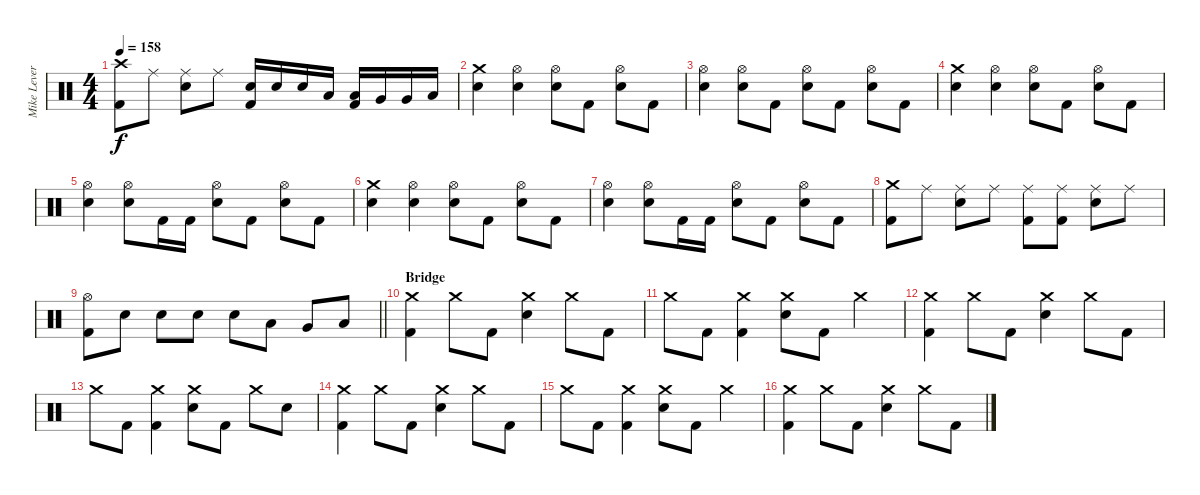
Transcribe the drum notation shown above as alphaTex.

\track ("Mike Leverence - Drums" "Mike Lever") {instrument percussion}
\staff {score}
\articulation defaults
\ts (4 4)
\tempo 158
\clef neutral
\ks c
("Crash high (hit)" "Kick (hit) 2").8{dy f} "Ride (middle)".8 ("Ride (middle)" "Electric Snare (hit)").8 "Ride (middle)".8 ("Electric Snare (hit)" "Kick (hit) 2").16 "Electric Snare (hit)".16 "Electric Snare (hit)".16 "Low Tom (hit)".16 ("Low Tom (hit)" "Kick (hit) 2").16 "Very Low Tom (hit)".16 "Very Low Tom (hit)".16 "Low Floor Tom (hit)".16 |
("Crash medium (hit)" "Electric Snare (hit)").4 ("Hi-Hat (open)" "Electric Snare (hit)").4 ("Hi-Hat (open)" "Electric Snare (hit)").8 "Kick (hit) 2".8 ("Hi-Hat (open)" "Electric Snare (hit)").8 "Kick (hit) 2".8 |
("Hi-Hat (open)" "Electric Snare (hit)").4 ("Hi-Hat (open)" "Electric Snare (hit)").8 "Kick (hit) 2".8 ("Hi-Hat (open)" "Electric Snare (hit)").8 "Kick (hit) 2".8 ("Hi-Hat (open)" "Electric Snare (hit)").8 "Kick (hit) 2".8 |
("Crash medium (hit)" "Electric Snare (hit)").4 ("Hi-Hat (open)" "Electric Snare (hit)").4 ("Hi-Hat (open)" "Electric Snare (hit)").8 "Kick (hit) 2".8 ("Hi-Hat (open)" "Electric Snare (hit)").8 "Kick (hit) 2".8 |
("Hi-Hat (open)" "Electric Snare (hit)").4 ("Hi-Hat (open)" "Electric Snare (hit)").8 "Kick (hit) 2".16 "Kick (hit) 2".16 ("Hi-Hat (open)" "Electric Snare (hit)").8 "Kick (hit) 2".8 ("Hi-Hat (open)" "Electric Snare (hit)").8 "Kick (hit) 2".8 |
("Crash medium (hit)" "Electric Snare (hit)").4 ("Hi-Hat (open)" "Electric Snare (hit)").4 ("Hi-Hat (open)" "Electric Snare (hit)").8 "Kick (hit) 2".8 ("Hi-Hat (open)" "Electric Snare (hit)").8 "Kick (hit) 2".8 |
("Hi-Hat (open)" "Electric Snare (hit)").4 ("Hi-Hat (open)" "Electric Snare (hit)").8 "Kick (hit) 2".16 "Kick (hit) 2".16 ("Hi-Hat (open)" "Electric Snare (hit)").8 "Kick (hit) 2".8 ("Hi-Hat (open)" "Electric Snare (hit)").8 "Kick (hit) 2".8 |
("Crash medium (hit)" "Kick (hit) 2").8 "Ride (middle)".8 ("Ride (middle)" "Electric Snare (hit)").8 "Ride (middle)".8 ("Ride (middle)" "Kick (hit) 2").8 ("Ride (middle)" "Kick (hit) 2").8 ("Ride (middle)" "Electric Snare (hit)").8 "Ride (middle)".8 |
\barLineRight lightlight
("Hi-Hat (open)" "Kick (hit) 2").8 "Electric Snare (hit)".8 "Electric Snare (hit)".8 "Electric Snare (hit)".8 "Electric Snare (hit)".8 "Low Tom (hit)".8 "Very Low Tom (hit)".8 "Low Floor Tom (hit)".8 |
\section ("" "Bridge")
("Crash medium (hit)" "Kick (hit) 2").4 "Crash medium (hit)".8 "Kick (hit) 2".8 ("Crash medium (hit)" "Electric Snare (hit)").4 "Crash medium (hit)".8 "Kick (hit) 2".8 |
"Crash medium (hit)".8 "Kick (hit) 2".8 ("Crash medium (hit)" "Kick (hit) 2").4 ("Crash medium (hit)" "Electric Snare (hit)").8 "Kick (hit) 2".8 "Crash medium (hit)".4 |
("Crash medium (hit)" "Kick (hit) 2").4 "Crash medium (hit)".8 "Kick (hit) 2".8 ("Crash medium (hit)" "Electric Snare (hit)").4 "Crash medium (hit)".8 "Kick (hit) 2".8 |
"Crash medium (hit)".8 "Kick (hit) 2".8 ("Crash medium (hit)" "Kick (hit) 2").4 ("Crash medium (hit)" "Electric Snare (hit)").8 "Kick (hit) 2".8 "Crash medium (hit)".8 "Electric Snare (hit)".8 |
("Crash medium (hit)" "Kick (hit) 2").4 "Crash medium (hit)".8 "Kick (hit) 2".8 ("Crash medium (hit)" "Electric Snare (hit)").4 "Crash medium (hit)".8 "Kick (hit) 2".8 |
"Crash medium (hit)".8 "Kick (hit) 2".8 ("Crash medium (hit)" "Kick (hit) 2").4 ("Crash medium (hit)" "Electric Snare (hit)").8 "Kick (hit) 2".8 "Crash medium (hit)".4 |
("Crash medium (hit)" "Kick (hit) 2").4 "Crash medium (hit)".8 "Kick (hit) 2".8 ("Crash medium (hit)" "Electric Snare (hit)").4 "Crash medium (hit)".8 "Kick (hit) 2".8
